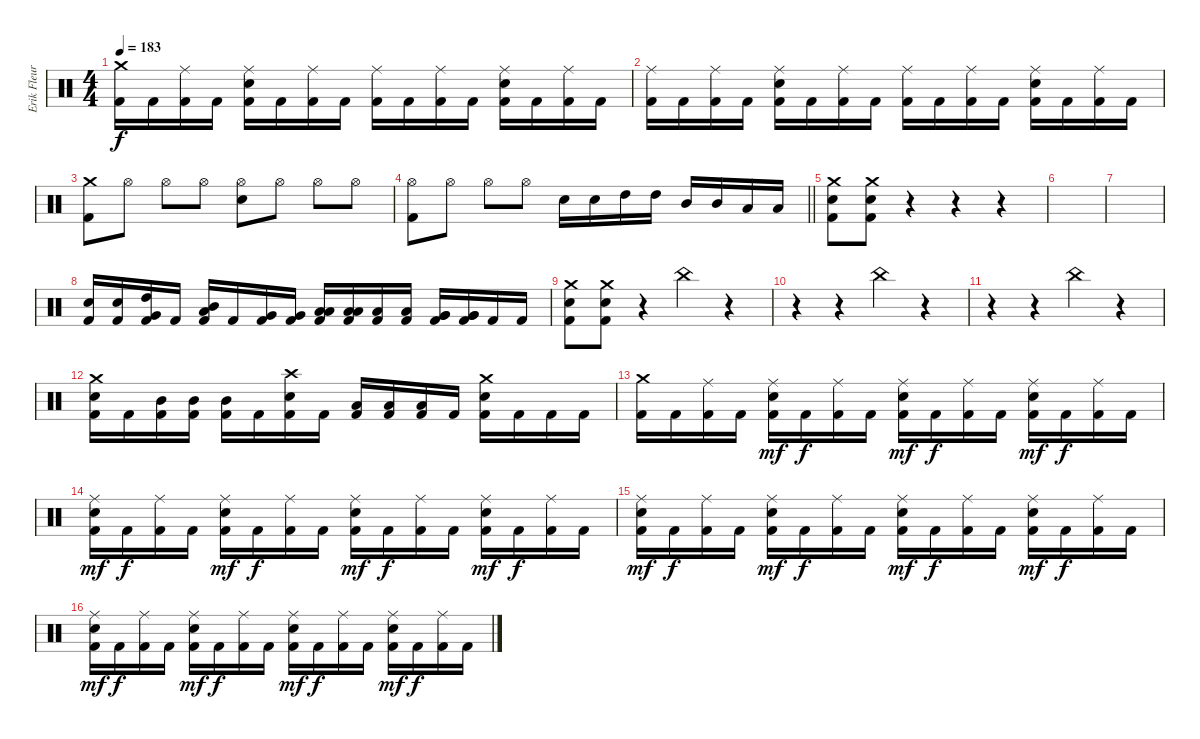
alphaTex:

\track ("Erik Fleuren" "Erik Fleur") {instrument percussion}
\staff {score}
\articulation defaults
\ts (4 4)
\tempo 183
\clef neutral
\ks c
("Crash medium (hit)" "Kick (hit) 2").16{dy f} "Kick (hit) 2".16 ("Ride (middle)" "Kick (hit) 2").16 "Kick (hit) 2".16 ("Ride (middle)" "Electric Snare (hit)" "Kick (hit) 2").16 "Kick (hit) 2".16 ("Ride (middle)" "Kick (hit) 2").16 "Kick (hit) 2".16 ("Ride (middle)" "Kick (hit) 2").16 "Kick (hit) 2".16 ("Ride (middle)" "Kick (hit) 2").16 "Kick (hit) 2".16 ("Ride (middle)" "Electric Snare (hit)" "Kick (hit) 2").16 "Kick (hit) 2".16 ("Ride (middle)" "Kick (hit) 2").16 "Kick (hit) 2".16 |
("Ride (middle)" "Kick (hit) 2").16 "Kick (hit) 2".16 ("Ride (middle)" "Kick (hit) 2").16 "Kick (hit) 2".16 ("Ride (middle)" "Electric Snare (hit)" "Kick (hit) 2").16 "Kick (hit) 2".16 ("Ride (middle)" "Kick (hit) 2").16 "Kick (hit) 2".16 ("Ride (middle)" "Kick (hit) 2").16 "Kick (hit) 2".16 ("Ride (middle)" "Kick (hit) 2").16 "Kick (hit) 2".16 ("Ride (middle)" "Electric Snare (hit)" "Kick (hit) 2").16 "Kick (hit) 2".16 ("Ride (middle)" "Kick (hit) 2").16 "Kick (hit) 2".16 |
("Crash medium (hit)" "Kick (hit) 2").8 "Hi-Hat (open)".8 "Hi-Hat (open)".8 "Hi-Hat (open)".8 ("Hi-Hat (open)" "Electric Snare (hit)").8 "Hi-Hat (open)".8 "Hi-Hat (open)".8 "Hi-Hat (open)".8 |
\barLineRight lightlight
("Hi-Hat (open)" "Kick (hit) 2").8 "Hi-Hat (open)".8 "Hi-Hat (open)".8 "Hi-Hat (open)".8 "Electric Snare (hit)".16 "Electric Snare (hit)".16 "High Tom (hit)".16 "High Tom (hit)".16 "Mid Tom (hit)".16 "Mid Tom (hit)".16 "Low Tom (hit)".16 "Low Tom (hit)".16 |
("Crash medium (hit)" "Electric Snare (hit)" "Kick (hit) 2").8 ("Crash medium (hit)" "Electric Snare (hit)" "Kick (hit) 2").8 r.4 r.4 r.4 |
|
|
("Electric Snare (hit)" "Kick (hit) 2").16 ("Electric Snare (hit)" "Kick (hit) 2").16 ("Very Low Tom (hit)" "High Tom (hit)" "Kick (hit) 2").16 "Kick (hit) 2".16 ("Low Tom (hit)" "Mid Tom (hit)" "Kick (hit) 2").16 "Kick (hit) 2".16 ("Very Low Tom (hit)" "Kick (hit) 2").16 ("Very Low Tom (hit)" "Kick (hit) 2").16 ("Low Tom (hit)" "Low Tom (hit)" "Kick (hit) 2").16 ("Low Tom (hit)" "Low Tom (hit)" "Kick (hit) 2").16 ("Low Floor Tom (hit)" "Kick (hit) 2").16 ("Low Floor Tom (hit)" "Kick (hit) 2").16 ("Very Low Tom (hit)" "Very Low Tom (hit)" "Kick (hit) 2").16 ("Very Low Tom (hit)" "Very Low Tom (hit)" "Kick (hit) 2").16 "Kick (hit) 2".16 "Kick (hit) 2".16 |
("Crash medium (hit)" "Electric Snare (hit)" "Kick (hit) 2").8 ("Crash medium (hit)" "Electric Snare (hit)" "Kick (hit) 2").8 r.4 "China (hit)".4 r.4 |
r.4 r.4 "China (hit)".4 r.4 |
r.4 r.4 "China (hit)".4 r.4 |
("Crash medium (hit)" "Electric Snare (hit)" "Kick (hit) 2").16 "Kick (hit) 2".16 ("Mid Tom (hit)" "Kick (hit) 2").16 ("Mid Tom (hit)" "Kick (hit) 2").16 ("Mid Tom (hit)" "Kick (hit) 2").16 "Kick (hit) 2".16 ("Crash high (hit)" "Electric Snare (hit)" "Kick (hit) 2").16 "Kick (hit) 2".16 ("Low Tom (hit)" "Kick (hit) 2").16 ("Low Tom (hit)" "Kick (hit) 2").16 ("Low Tom (hit)" "Kick (hit) 2").16 "Kick (hit) 2".16 ("Crash medium (hit)" "Electric Snare (hit)" "Kick (hit) 2").16 "Kick (hit) 2".16 "Kick (hit) 2".16 "Kick (hit) 2".16 |
("Crash medium (hit)" "Kick (hit) 2").16 "Kick (hit) 2".16 ("Ride (middle)" "Kick (hit) 2").16 "Kick (hit) 2".16 ("Ride (middle)" "Electric Snare (hit)" "Kick (hit) 2").16{dy mf} "Kick (hit) 2".16{dy f} ("Ride (middle)" "Kick (hit) 2").16 "Kick (hit) 2".16 ("Ride (middle)" "Electric Snare (hit)" "Kick (hit) 2").16{dy mf} "Kick (hit) 2".16{dy f} ("Ride (middle)" "Kick (hit) 2").16 "Kick (hit) 2".16 ("Ride (middle)" "Electric Snare (hit)" "Kick (hit) 2").16{dy mf} "Kick (hit) 2".16{dy f} ("Ride (middle)" "Kick (hit) 2").16 "Kick (hit) 2".16 |
("Ride (middle)" "Electric Snare (hit)" "Kick (hit) 2").16{dy mf} "Kick (hit) 2".16{dy f} ("Ride (middle)" "Kick (hit) 2").16 "Kick (hit) 2".16 ("Ride (middle)" "Electric Snare (hit)" "Kick (hit) 2").16{dy mf} "Kick (hit) 2".16{dy f} ("Ride (middle)" "Kick (hit) 2").16 "Kick (hit) 2".16 ("Ride (middle)" "Electric Snare (hit)" "Kick (hit) 2").16{dy mf} "Kick (hit) 2".16{dy f} ("Ride (middle)" "Kick (hit) 2").16 "Kick (hit) 2".16 ("Ride (middle)" "Electric Snare (hit)" "Kick (hit) 2").16{dy mf} "Kick (hit) 2".16{dy f} ("Ride (middle)" "Kick (hit) 2").16 "Kick (hit) 2".16 |
("Ride (middle)" "Electric Snare (hit)" "Kick (hit) 2").16{dy mf} "Kick (hit) 2".16{dy f} ("Ride (middle)" "Kick (hit) 2").16 "Kick (hit) 2".16 ("Ride (middle)" "Electric Snare (hit)" "Kick (hit) 2").16{dy mf} "Kick (hit) 2".16{dy f} ("Ride (middle)" "Kick (hit) 2").16 "Kick (hit) 2".16 ("Ride (middle)" "Electric Snare (hit)" "Kick (hit) 2").16{dy mf} "Kick (hit) 2".16{dy f} ("Ride (middle)" "Kick (hit) 2").16 "Kick (hit) 2".16 ("Ride (middle)" "Electric Snare (hit)" "Kick (hit) 2").16{dy mf} "Kick (hit) 2".16{dy f} ("Ride (middle)" "Kick (hit) 2").16 "Kick (hit) 2".16 |
("Ride (middle)" "Electric Snare (hit)" "Kick (hit) 2").16{dy mf} "Kick (hit) 2".16{dy f} ("Ride (middle)" "Kick (hit) 2").16 "Kick (hit) 2".16 ("Ride (middle)" "Electric Snare (hit)" "Kick (hit) 2").16{dy mf} "Kick (hit) 2".16{dy f} ("Ride (middle)" "Kick (hit) 2").16 "Kick (hit) 2".16 ("Ride (middle)" "Electric Snare (hit)" "Kick (hit) 2").16{dy mf} "Kick (hit) 2".16{dy f} ("Ride (middle)" "Kick (hit) 2").16 "Kick (hit) 2".16 ("Ride (middle)" "Electric Snare (hit)" "Kick (hit) 2").16{dy mf} "Kick (hit) 2".16{dy f} ("Ride (middle)" "Kick (hit) 2").16 "Kick (hit) 2".16
